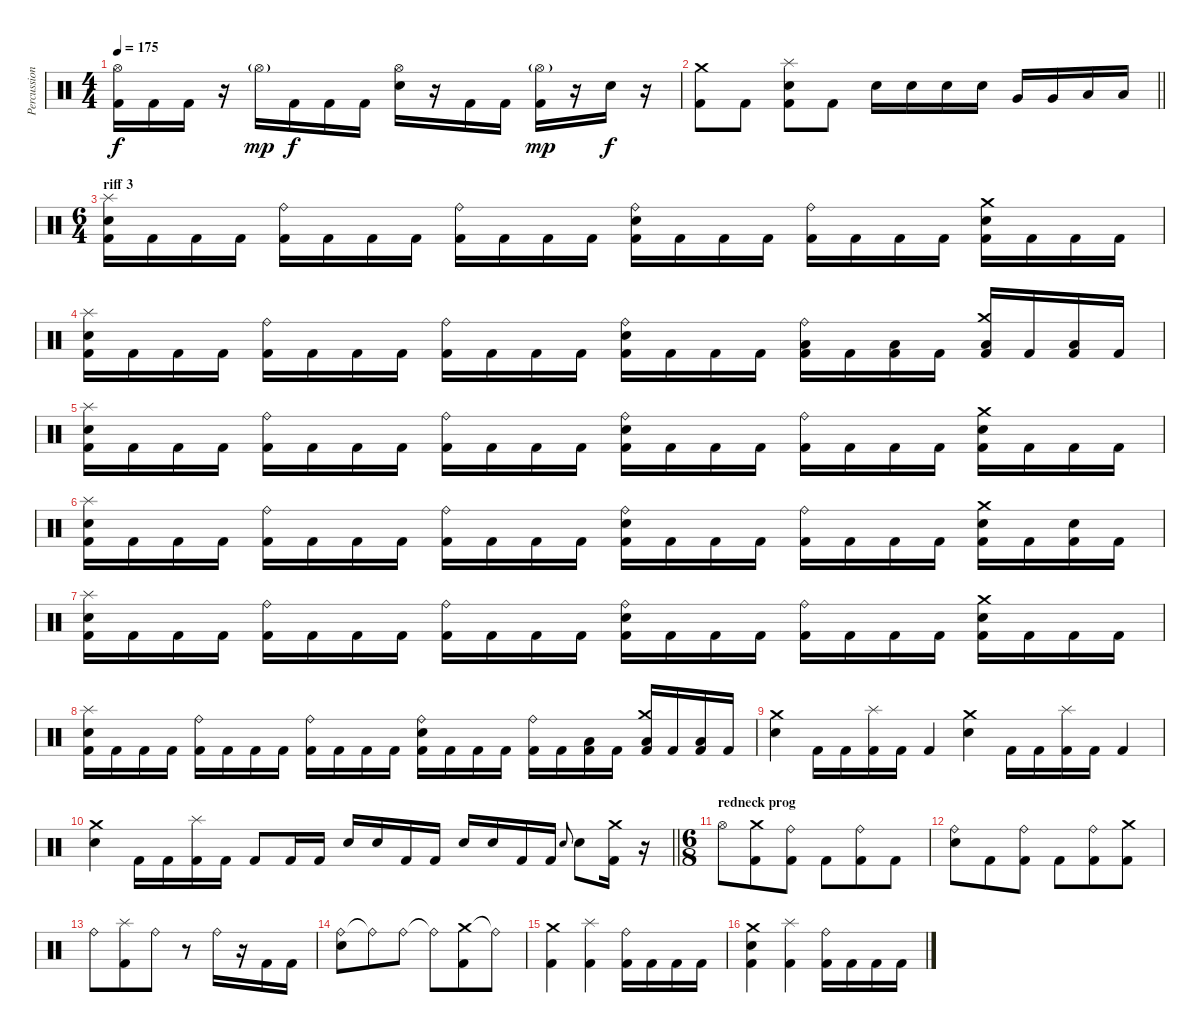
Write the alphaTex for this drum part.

\track ("Percussion" "Percussion") {instrument percussion}
\staff {score}
\articulation defaults
\ts (4 4)
\tempo 175
\clef neutral
\ks c
("Hi-Hat (open)" "Kick (hit) 2").16{dy f} "Kick (hit) 2".16 "Kick (hit) 2".16 r.16 "Hi-Hat (open)"{g}.16{dy mp} "Kick (hit) 2".16{dy f} "Kick (hit) 2".16 "Kick (hit) 2".16 ("Hi-Hat (open)" "Electric Snare (hit)").16 r.16 "Kick (hit) 2".16 "Kick (hit) 2".16 ("Hi-Hat (open)"{g} "Kick (hit) 2").16{dy mp} r.16 "Electric Snare (hit)".16{dy f} r.16 |
\barLineRight lightlight
("Crash medium (hit)" "Kick (hit) 2").8 "Kick (hit) 2".8 ("Splash (hit)" "Electric Snare (hit)" "Kick (hit) 2").8 "Kick (hit) 2".8 "Electric Snare (hit)".16 "Electric Snare (hit)".16 "Electric Snare (hit)".16 "Electric Snare (hit)".16 "Very Low Tom (hit)".16 "Very Low Tom (hit)".16 "Low Floor Tom (hit)".16 "Low Floor Tom (hit)".16 |
\ts (6 4)
\section ("" "riff 3")
("Splash (hit)" "Electric Snare (hit)" "Kick (hit) 2").16 "Kick (hit) 2".16 "Kick (hit) 2".16 "Kick (hit) 2".16 ("Ride (bell)" "Kick (hit) 2").16 "Kick (hit) 2".16 "Kick (hit) 2".16 "Kick (hit) 2".16 ("Ride (bell)" "Kick (hit) 2").16 "Kick (hit) 2".16 "Kick (hit) 2".16 "Kick (hit) 2".16 ("Ride (bell)" "Electric Snare (hit)" "Kick (hit) 2").16 "Kick (hit) 2".16 "Kick (hit) 2".16 "Kick (hit) 2".16 ("Ride (bell)" "Kick (hit) 2").16 "Kick (hit) 2".16 "Kick (hit) 2".16 "Kick (hit) 2".16 ("Crash medium (hit)" "Electric Snare (hit)" "Kick (hit) 2").16 "Kick (hit) 2".16 "Kick (hit) 2".16 "Kick (hit) 2".16 |
("Splash (hit)" "Electric Snare (hit)" "Kick (hit) 2").16 "Kick (hit) 2".16 "Kick (hit) 2".16 "Kick (hit) 2".16 ("Ride (bell)" "Kick (hit) 2").16 "Kick (hit) 2".16 "Kick (hit) 2".16 "Kick (hit) 2".16 ("Ride (bell)" "Kick (hit) 2").16 "Kick (hit) 2".16 "Kick (hit) 2".16 "Kick (hit) 2".16 ("Ride (bell)" "Electric Snare (hit)" "Kick (hit) 2").16 "Kick (hit) 2".16 "Kick (hit) 2".16 "Kick (hit) 2".16 ("Ride (bell)" "Low Floor Tom (hit)" "Kick (hit) 2").16 "Kick (hit) 2".16 ("Low Floor Tom (hit)" "Kick (hit) 2").16 "Kick (hit) 2".16 ("Crash medium (hit)" "Low Floor Tom (hit)" "Kick (hit) 2").16 "Kick (hit) 2".16 ("Low Floor Tom (hit)" "Kick (hit) 2").16 "Kick (hit) 2".16 |
("Splash (hit)" "Electric Snare (hit)" "Kick (hit) 2").16 "Kick (hit) 2".16 "Kick (hit) 2".16 "Kick (hit) 2".16 ("Ride (bell)" "Kick (hit) 2").16 "Kick (hit) 2".16 "Kick (hit) 2".16 "Kick (hit) 2".16 ("Ride (bell)" "Kick (hit) 2").16 "Kick (hit) 2".16 "Kick (hit) 2".16 "Kick (hit) 2".16 ("Ride (bell)" "Electric Snare (hit)" "Kick (hit) 2").16 "Kick (hit) 2".16 "Kick (hit) 2".16 "Kick (hit) 2".16 ("Ride (bell)" "Kick (hit) 2").16 "Kick (hit) 2".16 "Kick (hit) 2".16 "Kick (hit) 2".16 ("Crash medium (hit)" "Electric Snare (hit)" "Kick (hit) 2").16 "Kick (hit) 2".16 "Kick (hit) 2".16 "Kick (hit) 2".16 |
("Splash (hit)" "Electric Snare (hit)" "Kick (hit) 2").16 "Kick (hit) 2".16 "Kick (hit) 2".16 "Kick (hit) 2".16 ("Ride (bell)" "Kick (hit) 2").16 "Kick (hit) 2".16 "Kick (hit) 2".16 "Kick (hit) 2".16 ("Ride (bell)" "Kick (hit) 2").16 "Kick (hit) 2".16 "Kick (hit) 2".16 "Kick (hit) 2".16 ("Ride (bell)" "Electric Snare (hit)" "Kick (hit) 2").16 "Kick (hit) 2".16 "Kick (hit) 2".16 "Kick (hit) 2".16 ("Ride (bell)" "Kick (hit) 2").16 "Kick (hit) 2".16 "Kick (hit) 2".16 "Kick (hit) 2".16 ("Crash medium (hit)" "Electric Snare (hit)" "Kick (hit) 2").16 "Kick (hit) 2".16 ("Electric Snare (hit)" "Kick (hit) 2").16 "Kick (hit) 2".16 |
("Splash (hit)" "Electric Snare (hit)" "Kick (hit) 2").16 "Kick (hit) 2".16 "Kick (hit) 2".16 "Kick (hit) 2".16 ("Ride (bell)" "Kick (hit) 2").16 "Kick (hit) 2".16 "Kick (hit) 2".16 "Kick (hit) 2".16 ("Ride (bell)" "Kick (hit) 2").16 "Kick (hit) 2".16 "Kick (hit) 2".16 "Kick (hit) 2".16 ("Ride (bell)" "Electric Snare (hit)" "Kick (hit) 2").16 "Kick (hit) 2".16 "Kick (hit) 2".16 "Kick (hit) 2".16 ("Ride (bell)" "Kick (hit) 2").16 "Kick (hit) 2".16 "Kick (hit) 2".16 "Kick (hit) 2".16 ("Crash medium (hit)" "Electric Snare (hit)" "Kick (hit) 2").16 "Kick (hit) 2".16 "Kick (hit) 2".16 "Kick (hit) 2".16 |
("Splash (hit)" "Electric Snare (hit)" "Kick (hit) 2").16 "Kick (hit) 2".16 "Kick (hit) 2".16 "Kick (hit) 2".16 ("Ride (bell)" "Kick (hit) 2").16 "Kick (hit) 2".16 "Kick (hit) 2".16 "Kick (hit) 2".16 ("Ride (bell)" "Kick (hit) 2").16 "Kick (hit) 2".16 "Kick (hit) 2".16 "Kick (hit) 2".16 ("Ride (bell)" "Electric Snare (hit)" "Kick (hit) 2").16 "Kick (hit) 2".16 "Kick (hit) 2".16 "Kick (hit) 2".16 ("Ride (bell)" "Kick (hit) 2").16 "Kick (hit) 2".16 ("Low Floor Tom (hit)" "Kick (hit) 2").16 "Kick (hit) 2".16 ("Crash medium (hit)" "Low Floor Tom (hit)" "Kick (hit) 2").16 "Kick (hit) 2".16 ("Low Floor Tom (hit)" "Kick (hit) 2").16 "Kick (hit) 2".16 |
("Crash medium (hit)" "Electric Snare (hit)").4 "Kick (hit) 2".16 "Kick (hit) 2".16 ("Kick (hit) 2" "Splash (hit)").16 "Kick (hit) 2".16 "Kick (hit) 2".4 ("Electric Snare (hit)" "Crash medium (hit)").4 "Kick (hit) 2".16 "Kick (hit) 2".16 ("Kick (hit) 2" "Splash (hit)").16 "Kick (hit) 2".16 "Kick (hit) 2".4 |
\barLineRight lightlight
("Crash medium (hit)" "Electric Snare (hit)").4 "Kick (hit) 2".16 "Kick (hit) 2".16 ("Kick (hit) 2" "Splash (hit)").16 "Kick (hit) 2".16 "Kick (hit) 2".8 "Kick (hit) 2".16 "Kick (hit) 2".16 "Electric Snare (hit)".16 "Electric Snare (hit)".16 "Kick (hit) 2".16 "Kick (hit) 2".16 "Electric Snare (hit)".16 "Electric Snare (hit)".16 "Kick (hit) 2".16 "Kick (hit) 2".16 "Electric Snare (hit)".8{gr onbeat} "Electric Snare (hit)".8 ("Crash medium (hit)" "Kick (hit) 2").16 r.16 |
\ts (6 8)
\section ("" "redneck prog")
"Hi-Hat (open)".8 ("Crash medium (hit)" "Kick (hit) 2").8 ("Ride (bell)" "Kick (hit) 2").8 "Kick (hit) 2".8 ("Ride (bell)" "Kick (hit) 2").8 "Kick (hit) 2".8 |
("Ride (bell)" "Electric Snare (hit)").8 "Kick (hit) 2".8 ("Ride (bell)" "Kick (hit) 2").8 "Kick (hit) 2".8 ("Ride (bell)" "Kick (hit) 2").8 ("Crash medium (hit)" "Kick (hit) 2").8 |
"Ride (bell)".8 ("Splash (hit)" "Kick (hit) 2").8 "Ride (bell)".8 r.8 "Ride (bell)".16 r.16 "Kick (hit) 2".16 "Kick (hit) 2".16 |
("Ride (bell)" "Electric Snare (hit)").8 "Ride (bell)"{t}.8 "Ride (bell)".8 "Ride (bell)"{t}.8 ("Crash medium (hit)" "Kick (hit) 2").8 "Ride (bell)"{t}.8 |
("Crash medium (hit)" "Kick (hit) 2").4 ("Splash (hit)" "Kick (hit) 2").4 ("Ride (bell)" "Kick (hit) 2").16 "Kick (hit) 2".16 "Kick (hit) 2".16 "Kick (hit) 2".16 |
("Crash medium (hit)" "Electric Snare (hit)" "Kick (hit) 2").4 ("Splash (hit)" "Kick (hit) 2").4 ("Ride (bell)" "Kick (hit) 2").16 "Kick (hit) 2".16 "Kick (hit) 2".16 "Kick (hit) 2".16
